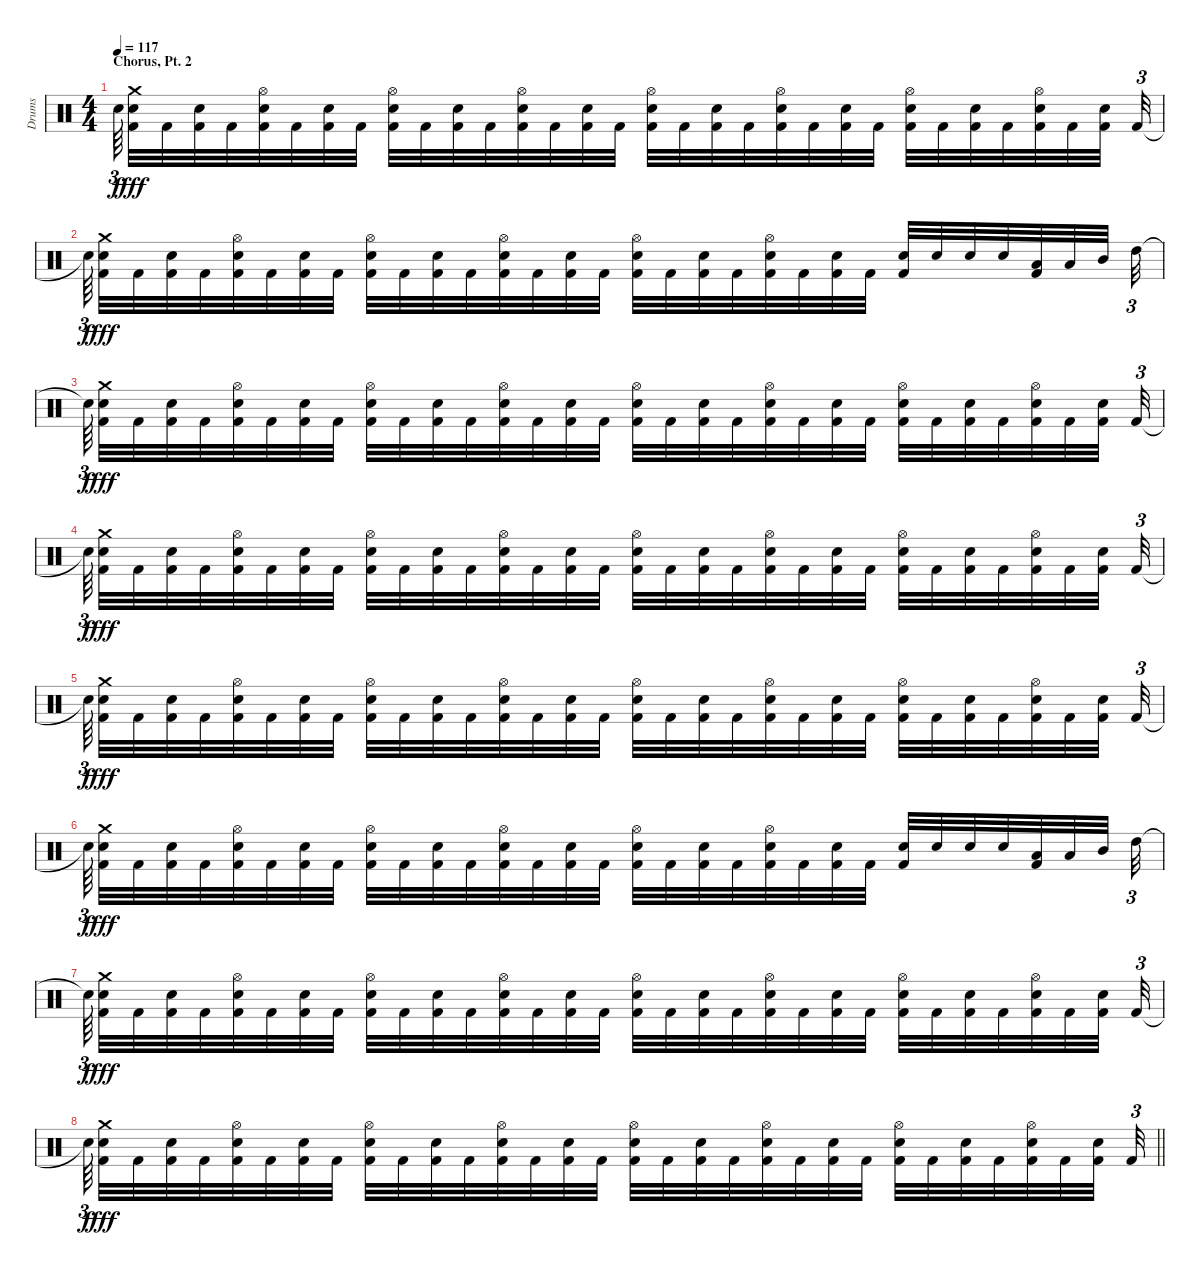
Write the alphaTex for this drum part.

\track ("Drums" "Drums") {instrument percussion}
\staff {score}
\articulation defaults
\ts (4 4)
\section ("" "Chorus, Pt. 2")
\tempo 117
\clef neutral
\ks c "Snare (hit)"{t}.64{tu (3 2) dy f beam splitsecondary}
("Kick (hit) 2" "Snare (hit) 2" "Crash medium (hit)").32{dy fff} "Kick (hit) 2".32 ("Kick (hit) 2" "Snare (hit) 2").32 "Kick (hit) 2".32 ("Kick (hit) 2" "Snare (hit) 2" "Hi-Hat (open)").32 "Kick (hit) 2".32 ("Kick (hit) 2" "Snare (hit) 2").32 "Kick (hit) 2".32 ("Kick (hit) 2" "Snare (hit) 2" "Hi-Hat (open)").32 "Kick (hit) 2".32 ("Kick (hit) 2" "Snare (hit) 2").32 "Kick (hit) 2".32 ("Kick (hit) 2" "Snare (hit) 2" "Hi-Hat (open)").32 "Kick (hit) 2".32 ("Kick (hit) 2" "Snare (hit) 2").32 "Kick (hit) 2".32 ("Kick (hit) 2" "Snare (hit) 2" "Hi-Hat (open)").32 "Kick (hit) 2".32 ("Kick (hit) 2" "Snare (hit) 2").32 "Kick (hit) 2".32 ("Kick (hit) 2" "Snare (hit) 2" "Hi-Hat (open)").32 "Kick (hit) 2".32 ("Kick (hit) 2" "Snare (hit) 2").32 "Kick (hit) 2".32 ("Kick (hit) 2" "Snare (hit) 2" "Hi-Hat (open)").32 "Kick (hit) 2".32 ("Kick (hit) 2" "Snare (hit) 2").32 "Kick (hit) 2".32 ("Kick (hit) 2" "Snare (hit) 2" "Hi-Hat (open)").32 "Kick (hit) 2".32 ("Kick (hit) 2" "Snare (hit) 2").32{beam splitsecondary} "Kick (hit) 2".32{tu (3 2)} |
"Snare (hit)"{t}.64{tu (3 2) dy f beam splitsecondary} ("Kick (hit) 2" "Snare (hit) 2" "Crash medium (hit)").32{dy fff} "Kick (hit) 2".32 ("Kick (hit) 2" "Snare (hit) 2").32 "Kick (hit) 2".32 ("Kick (hit) 2" "Snare (hit) 2" "Hi-Hat (open)").32 "Kick (hit) 2".32 ("Kick (hit) 2" "Snare (hit) 2").32 "Kick (hit) 2".32 ("Kick (hit) 2" "Snare (hit) 2" "Hi-Hat (open)").32 "Kick (hit) 2".32 ("Kick (hit) 2" "Snare (hit) 2").32 "Kick (hit) 2".32 ("Kick (hit) 2" "Snare (hit) 2" "Hi-Hat (open)").32 "Kick (hit) 2".32 ("Kick (hit) 2" "Snare (hit) 2").32 "Kick (hit) 2".32 ("Kick (hit) 2" "Snare (hit) 2" "Hi-Hat (open)").32 "Kick (hit) 2".32 ("Kick (hit) 2" "Snare (hit) 2").32 "Kick (hit) 2".32 ("Kick (hit) 2" "Snare (hit) 2" "Hi-Hat (open)").32 "Kick (hit) 2".32 ("Kick (hit) 2" "Snare (hit) 2").32 "Kick (hit) 2".32 ("Kick (hit) 2" "Snare (hit) 2").32 "Snare (hit) 2".32 "Snare (hit) 2".32 "Snare (hit) 2".32 ("Kick (hit) 2" "Low Tom (hit)").32 "Low Tom (hit)".32 "Mid Tom (hit)".32{beam splitsecondary} "High Tom (hit)".32{tu (3 2)} |
"Snare (hit)"{t}.64{tu (3 2) dy f beam splitsecondary} ("Kick (hit) 2" "Snare (hit) 2" "Crash medium (hit)").32{dy fff} "Kick (hit) 2".32 ("Kick (hit) 2" "Snare (hit) 2").32 "Kick (hit) 2".32 ("Kick (hit) 2" "Snare (hit) 2" "Hi-Hat (open)").32 "Kick (hit) 2".32 ("Kick (hit) 2" "Snare (hit) 2").32 "Kick (hit) 2".32 ("Kick (hit) 2" "Snare (hit) 2" "Hi-Hat (open)").32 "Kick (hit) 2".32 ("Kick (hit) 2" "Snare (hit) 2").32 "Kick (hit) 2".32 ("Kick (hit) 2" "Snare (hit) 2" "Hi-Hat (open)").32 "Kick (hit) 2".32 ("Kick (hit) 2" "Snare (hit) 2").32 "Kick (hit) 2".32 ("Kick (hit) 2" "Snare (hit) 2" "Hi-Hat (open)").32 "Kick (hit) 2".32 ("Kick (hit) 2" "Snare (hit) 2").32 "Kick (hit) 2".32 ("Kick (hit) 2" "Snare (hit) 2" "Hi-Hat (open)").32 "Kick (hit) 2".32 ("Kick (hit) 2" "Snare (hit) 2").32 "Kick (hit) 2".32 ("Kick (hit) 2" "Snare (hit) 2" "Hi-Hat (open)").32 "Kick (hit) 2".32 ("Kick (hit) 2" "Snare (hit) 2").32 "Kick (hit) 2".32 ("Kick (hit) 2" "Snare (hit) 2" "Hi-Hat (open)").32 "Kick (hit) 2".32 ("Kick (hit) 2" "Snare (hit) 2").32{beam splitsecondary} "Kick (hit) 2".32{tu (3 2)} |
"Snare (hit)"{t}.64{tu (3 2) dy f beam splitsecondary} ("Kick (hit) 2" "Snare (hit) 2" "Crash medium (hit)").32{dy fff} "Kick (hit) 2".32 ("Kick (hit) 2" "Snare (hit) 2").32 "Kick (hit) 2".32 ("Kick (hit) 2" "Snare (hit) 2" "Hi-Hat (open)").32 "Kick (hit) 2".32 ("Kick (hit) 2" "Snare (hit) 2").32 "Kick (hit) 2".32 ("Kick (hit) 2" "Snare (hit) 2" "Hi-Hat (open)").32 "Kick (hit) 2".32 ("Kick (hit) 2" "Snare (hit) 2").32 "Kick (hit) 2".32 ("Kick (hit) 2" "Snare (hit) 2" "Hi-Hat (open)").32 "Kick (hit) 2".32 ("Kick (hit) 2" "Snare (hit) 2").32 "Kick (hit) 2".32 ("Kick (hit) 2" "Snare (hit) 2" "Hi-Hat (open)").32 "Kick (hit) 2".32 ("Kick (hit) 2" "Snare (hit) 2").32 "Kick (hit) 2".32 ("Kick (hit) 2" "Snare (hit) 2" "Hi-Hat (open)").32 "Kick (hit) 2".32 ("Kick (hit) 2" "Snare (hit) 2").32 "Kick (hit) 2".32 ("Kick (hit) 2" "Snare (hit) 2" "Hi-Hat (open)").32 "Kick (hit) 2".32 ("Kick (hit) 2" "Snare (hit) 2").32 "Kick (hit) 2".32 ("Kick (hit) 2" "Snare (hit) 2" "Hi-Hat (open)").32 "Kick (hit) 2".32 ("Kick (hit) 2" "Snare (hit) 2").32{beam splitsecondary} "Kick (hit) 2".32{tu (3 2)} |
"Snare (hit)"{t}.64{tu (3 2) dy f beam splitsecondary} ("Kick (hit) 2" "Snare (hit) 2" "Crash medium (hit)").32{dy fff} "Kick (hit) 2".32 ("Kick (hit) 2" "Snare (hit) 2").32 "Kick (hit) 2".32 ("Kick (hit) 2" "Snare (hit) 2" "Hi-Hat (open)").32 "Kick (hit) 2".32 ("Kick (hit) 2" "Snare (hit) 2").32 "Kick (hit) 2".32 ("Kick (hit) 2" "Snare (hit) 2" "Hi-Hat (open)").32 "Kick (hit) 2".32 ("Kick (hit) 2" "Snare (hit) 2").32 "Kick (hit) 2".32 ("Kick (hit) 2" "Snare (hit) 2" "Hi-Hat (open)").32 "Kick (hit) 2".32 ("Kick (hit) 2" "Snare (hit) 2").32 "Kick (hit) 2".32 ("Kick (hit) 2" "Snare (hit) 2" "Hi-Hat (open)").32 "Kick (hit) 2".32 ("Kick (hit) 2" "Snare (hit) 2").32 "Kick (hit) 2".32 ("Kick (hit) 2" "Snare (hit) 2" "Hi-Hat (open)").32 "Kick (hit) 2".32 ("Kick (hit) 2" "Snare (hit) 2").32 "Kick (hit) 2".32 ("Kick (hit) 2" "Snare (hit) 2" "Hi-Hat (open)").32 "Kick (hit) 2".32 ("Kick (hit) 2" "Snare (hit) 2").32 "Kick (hit) 2".32 ("Kick (hit) 2" "Snare (hit) 2" "Hi-Hat (open)").32 "Kick (hit) 2".32 ("Kick (hit) 2" "Snare (hit) 2").32{beam splitsecondary} "Kick (hit) 2".32{tu (3 2)} |
"Snare (hit)"{t}.64{tu (3 2) dy f beam splitsecondary} ("Kick (hit) 2" "Snare (hit) 2" "Crash medium (hit)").32{dy fff} "Kick (hit) 2".32 ("Kick (hit) 2" "Snare (hit) 2").32 "Kick (hit) 2".32 ("Kick (hit) 2" "Snare (hit) 2" "Hi-Hat (open)").32 "Kick (hit) 2".32 ("Kick (hit) 2" "Snare (hit) 2").32 "Kick (hit) 2".32 ("Kick (hit) 2" "Snare (hit) 2" "Hi-Hat (open)").32 "Kick (hit) 2".32 ("Kick (hit) 2" "Snare (hit) 2").32 "Kick (hit) 2".32 ("Kick (hit) 2" "Snare (hit) 2" "Hi-Hat (open)").32 "Kick (hit) 2".32 ("Kick (hit) 2" "Snare (hit) 2").32 "Kick (hit) 2".32 ("Kick (hit) 2" "Snare (hit) 2" "Hi-Hat (open)").32 "Kick (hit) 2".32 ("Kick (hit) 2" "Snare (hit) 2").32 "Kick (hit) 2".32 ("Kick (hit) 2" "Snare (hit) 2" "Hi-Hat (open)").32 "Kick (hit) 2".32 ("Kick (hit) 2" "Snare (hit) 2").32 "Kick (hit) 2".32 ("Kick (hit) 2" "Snare (hit) 2").32 "Snare (hit) 2".32 "Snare (hit) 2".32 "Snare (hit) 2".32 ("Kick (hit) 2" "Low Tom (hit)").32 "Low Tom (hit)".32 "Mid Tom (hit)".32{beam splitsecondary} "High Tom (hit)".32{tu (3 2)} |
"Snare (hit)"{t}.64{tu (3 2) dy f beam splitsecondary} ("Kick (hit) 2" "Snare (hit) 2" "Crash medium (hit)").32{dy fff} "Kick (hit) 2".32 ("Kick (hit) 2" "Snare (hit) 2").32 "Kick (hit) 2".32 ("Kick (hit) 2" "Snare (hit) 2" "Hi-Hat (open)").32 "Kick (hit) 2".32 ("Kick (hit) 2" "Snare (hit) 2").32 "Kick (hit) 2".32 ("Kick (hit) 2" "Snare (hit) 2" "Hi-Hat (open)").32 "Kick (hit) 2".32 ("Kick (hit) 2" "Snare (hit) 2").32 "Kick (hit) 2".32 ("Kick (hit) 2" "Snare (hit) 2" "Hi-Hat (open)").32 "Kick (hit) 2".32 ("Kick (hit) 2" "Snare (hit) 2").32 "Kick (hit) 2".32 ("Kick (hit) 2" "Snare (hit) 2" "Hi-Hat (open)").32 "Kick (hit) 2".32 ("Kick (hit) 2" "Snare (hit) 2").32 "Kick (hit) 2".32 ("Kick (hit) 2" "Snare (hit) 2" "Hi-Hat (open)").32 "Kick (hit) 2".32 ("Kick (hit) 2" "Snare (hit) 2").32 "Kick (hit) 2".32 ("Kick (hit) 2" "Snare (hit) 2" "Hi-Hat (open)").32 "Kick (hit) 2".32 ("Kick (hit) 2" "Snare (hit) 2").32 "Kick (hit) 2".32 ("Kick (hit) 2" "Snare (hit) 2" "Hi-Hat (open)").32 "Kick (hit) 2".32 ("Kick (hit) 2" "Snare (hit) 2").32{beam splitsecondary} "Kick (hit) 2".32{tu (3 2)} |
\barLineRight lightlight "Snare (hit)"{t}.64{tu (3 2) dy f beam splitsecondary}
("Kick (hit) 2" "Snare (hit) 2" "Crash medium (hit)").32{dy fff} "Kick (hit) 2".32 ("Kick (hit) 2" "Snare (hit) 2").32 "Kick (hit) 2".32 ("Kick (hit) 2" "Snare (hit) 2" "Hi-Hat (open)").32 "Kick (hit) 2".32 ("Kick (hit) 2" "Snare (hit) 2").32 "Kick (hit) 2".32 ("Kick (hit) 2" "Snare (hit) 2" "Hi-Hat (open)").32 "Kick (hit) 2".32 ("Kick (hit) 2" "Snare (hit) 2").32 "Kick (hit) 2".32 ("Kick (hit) 2" "Snare (hit) 2" "Hi-Hat (open)").32 "Kick (hit) 2".32 ("Kick (hit) 2" "Snare (hit) 2").32 "Kick (hit) 2".32 ("Kick (hit) 2" "Snare (hit) 2" "Hi-Hat (open)").32 "Kick (hit) 2".32 ("Kick (hit) 2" "Snare (hit) 2").32 "Kick (hit) 2".32 ("Kick (hit) 2" "Snare (hit) 2" "Hi-Hat (open)").32 "Kick (hit) 2".32 ("Kick (hit) 2" "Snare (hit) 2").32 "Kick (hit) 2".32 ("Kick (hit) 2" "Snare (hit) 2" "Hi-Hat (open)").32 "Kick (hit) 2".32 ("Kick (hit) 2" "Snare (hit) 2").32 "Kick (hit) 2".32 ("Kick (hit) 2" "Snare (hit) 2" "Hi-Hat (open)").32 "Kick (hit) 2".32 ("Kick (hit) 2" "Snare (hit) 2").32{beam splitsecondary} "Kick (hit) 2".32{tu (3 2)}
